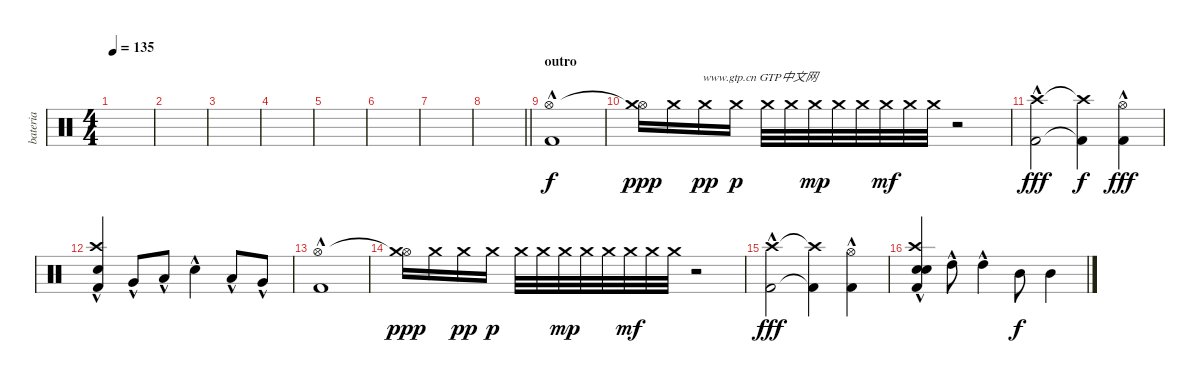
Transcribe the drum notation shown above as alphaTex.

\track ("bateria" "bateria") {instrument percussion}
\staff {score}
\articulation defaults
\ts (4 4)
\tempo 135
\clef neutral
\ks c
|
|
|
|
|
|
|
\barLineRight lightlight
|
\section ("" "outro")
("Hi-Hat (open)" "Kick (hit) 2"{hac}).1 |
("Hi-Hat (open)"{t} "Crash medium (hit)").16{txt "                    www.gtp.cn GTP中文网" dy ppp} "Crash medium (hit)".16 "Crash medium (hit)".16{dy pp} "Crash medium (hit)".16{dy p} "Crash medium (hit)".32 "Crash medium (hit)".32 "Crash medium (hit)".32{dy mp} "Crash medium (hit)".32 "Crash medium (hit)".32 "Crash medium (hit)".32{dy mf} "Crash medium (hit)".32 "Crash medium (hit)".32 r.2 |
("Crash high (hit)" "Kick (hit) 2"{hac}).2{dy fff} ("Crash high (hit)"{t} "Kick (hit) 2"{t}).4{dy f} ("Hi-Hat (open)" "Kick (hit) 2"{hac}).4{dy fff} |
("Crash high (hit)"{hac} "Snare (hit) 2" "Kick (hit) 2").4 "Very Low Tom (hit)"{hac}.8 "Low Floor Tom (hit)"{hac}.8 "Snare (hit) 2"{hac}.4 "Low Floor Tom (hit)"{hac}.8 "Very Low Tom (hit)"{hac}.8 |
("Hi-Hat (open)" "Kick (hit) 2"{hac}).1 |
("Hi-Hat (open)"{t} "Crash medium (hit)").16{dy ppp} "Crash medium (hit)".16 "Crash medium (hit)".16{dy pp} "Crash medium (hit)".16{dy p} "Crash medium (hit)".32 "Crash medium (hit)".32 "Crash medium (hit)".32{dy mp} "Crash medium (hit)".32 "Crash medium (hit)".32 "Crash medium (hit)".32{dy mf} "Crash medium (hit)".32 "Crash medium (hit)".32 r.2 |
("Crash high (hit)" "Kick (hit) 2"{hac}).2{dy fff} ("Crash high (hit)"{t} "Kick (hit) 2"{t}).4 ("Hi-Hat (open)" "Kick (hit) 2"{hac}).4 |
("Crash high (hit)"{hac} "Snare (hit) 2"{hac} "Hand Clap (hit)" "Kick (hit) 2").4 "High Tom (hit)"{hac}.8 "High Tom (hit)"{hac}.4 "Mid Tom (hit)".8{dy f} "Mid Tom (hit)".4
